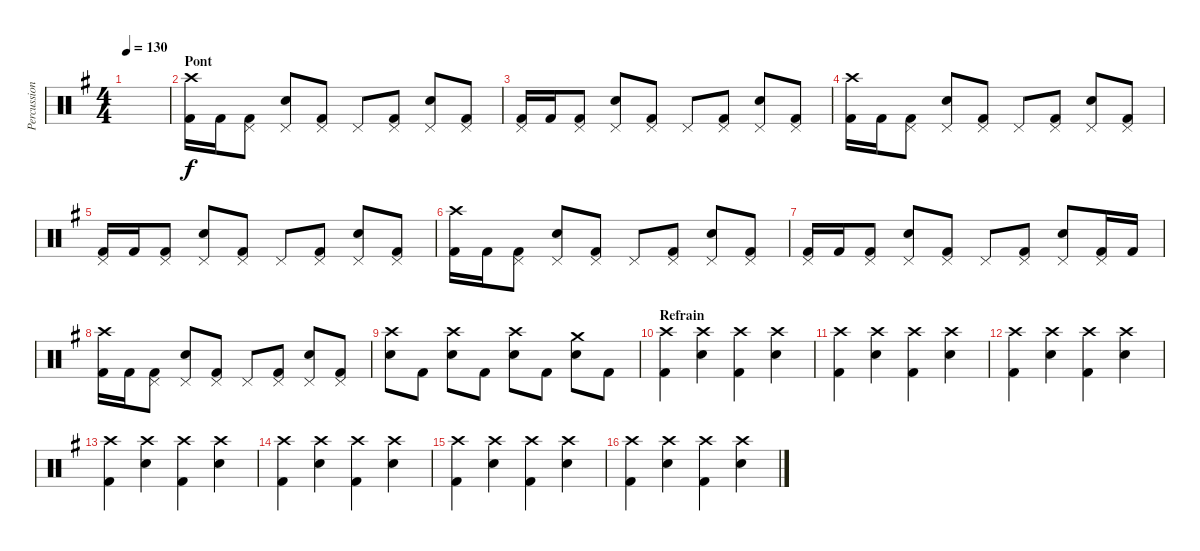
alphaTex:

\track ("Percussions" "Percussion") {instrument percussion}
\staff {score}
\articulation defaults
\ts (4 4)
\tempo 130
\clef neutral
\ks eminor
|
\section ("" "Pont")
("Crash high (hit)" "Kick (hit) 2").16 "Kick (hit) 2".16 ("Pedal Hi-Hat (hit)" "Kick (hit) 2").8 ("Pedal Hi-Hat (hit)" "Electric Snare (hit)").8 ("Pedal Hi-Hat (hit)" "Kick (hit) 2").8 "Pedal Hi-Hat (hit)".8 ("Pedal Hi-Hat (hit)" "Kick (hit) 2").8 ("Pedal Hi-Hat (hit)" "Electric Snare (hit)").8 ("Pedal Hi-Hat (hit)" "Kick (hit) 2").8 |
("Pedal Hi-Hat (hit)" "Kick (hit) 2").16 "Kick (hit) 2".16 ("Pedal Hi-Hat (hit)" "Kick (hit) 2").8 ("Pedal Hi-Hat (hit)" "Electric Snare (hit)").8 ("Pedal Hi-Hat (hit)" "Kick (hit) 2").8 "Pedal Hi-Hat (hit)".8 ("Pedal Hi-Hat (hit)" "Kick (hit) 2").8 ("Pedal Hi-Hat (hit)" "Electric Snare (hit)").8 ("Pedal Hi-Hat (hit)" "Kick (hit) 2").8 |
("Crash high (hit)" "Kick (hit) 2").16 "Kick (hit) 2".16 ("Pedal Hi-Hat (hit)" "Kick (hit) 2").8 ("Pedal Hi-Hat (hit)" "Electric Snare (hit)").8 ("Pedal Hi-Hat (hit)" "Kick (hit) 2").8 "Pedal Hi-Hat (hit)".8 ("Pedal Hi-Hat (hit)" "Kick (hit) 2").8 ("Pedal Hi-Hat (hit)" "Electric Snare (hit)").8 ("Pedal Hi-Hat (hit)" "Kick (hit) 2").8 |
("Pedal Hi-Hat (hit)" "Kick (hit) 2").16 "Kick (hit) 2".16 ("Pedal Hi-Hat (hit)" "Kick (hit) 2").8 ("Pedal Hi-Hat (hit)" "Electric Snare (hit)").8 ("Pedal Hi-Hat (hit)" "Kick (hit) 2").8 "Pedal Hi-Hat (hit)".8 ("Pedal Hi-Hat (hit)" "Kick (hit) 2").8 ("Pedal Hi-Hat (hit)" "Electric Snare (hit)").8 ("Pedal Hi-Hat (hit)" "Kick (hit) 2").8 |
("Crash high (hit)" "Kick (hit) 2").16 "Kick (hit) 2".16 ("Pedal Hi-Hat (hit)" "Kick (hit) 2").8 ("Pedal Hi-Hat (hit)" "Electric Snare (hit)").8 ("Pedal Hi-Hat (hit)" "Kick (hit) 2").8 "Pedal Hi-Hat (hit)".8 ("Pedal Hi-Hat (hit)" "Kick (hit) 2").8 ("Pedal Hi-Hat (hit)" "Electric Snare (hit)").8 ("Pedal Hi-Hat (hit)" "Kick (hit) 2").8 |
("Pedal Hi-Hat (hit)" "Kick (hit) 2").16 "Kick (hit) 2".16 ("Pedal Hi-Hat (hit)" "Kick (hit) 2").8 ("Pedal Hi-Hat (hit)" "Electric Snare (hit)").8 ("Pedal Hi-Hat (hit)" "Kick (hit) 2").8 "Pedal Hi-Hat (hit)".8 ("Pedal Hi-Hat (hit)" "Kick (hit) 2").8 ("Pedal Hi-Hat (hit)" "Electric Snare (hit)").8 ("Pedal Hi-Hat (hit)" "Kick (hit) 2").16 "Kick (hit) 2".16 |
("Crash high (hit)" "Kick (hit) 2").16 "Kick (hit) 2".16 ("Pedal Hi-Hat (hit)" "Kick (hit) 2").8 ("Pedal Hi-Hat (hit)" "Electric Snare (hit)").8 ("Pedal Hi-Hat (hit)" "Kick (hit) 2").8 "Pedal Hi-Hat (hit)".8 ("Pedal Hi-Hat (hit)" "Kick (hit) 2").8 ("Pedal Hi-Hat (hit)" "Electric Snare (hit)").8 ("Pedal Hi-Hat (hit)" "Kick (hit) 2").8 |
("Crash high (hit)" "Electric Snare (hit)").8 "Kick (hit) 2".8 ("Crash high (hit)" "Electric Snare (hit)").8 "Kick (hit) 2".8 ("Crash high (hit)" "Electric Snare (hit)").8 "Kick (hit) 2".8 ("Crash medium (hit)" "Electric Snare (hit)").8 "Kick (hit) 2".8 |
\section ("" "Refrain")
("Crash high (hit)" "Kick (hit) 2").4 ("Crash high (hit)" "Electric Snare (hit)").4 ("Crash high (hit)" "Kick (hit) 2").4 ("Crash high (hit)" "Electric Snare (hit)").4 |
("Crash high (hit)" "Kick (hit) 2").4 ("Crash high (hit)" "Electric Snare (hit)").4 ("Crash high (hit)" "Kick (hit) 2").4 ("Crash high (hit)" "Electric Snare (hit)").4 |
("Crash high (hit)" "Kick (hit) 2").4 ("Crash high (hit)" "Electric Snare (hit)").4 ("Crash high (hit)" "Kick (hit) 2").4 ("Crash high (hit)" "Electric Snare (hit)").4 |
("Crash high (hit)" "Kick (hit) 2").4 ("Crash high (hit)" "Electric Snare (hit)").4 ("Crash high (hit)" "Kick (hit) 2").4 ("Crash high (hit)" "Electric Snare (hit)").4 |
("Crash high (hit)" "Kick (hit) 2").4 ("Crash high (hit)" "Electric Snare (hit)").4 ("Crash high (hit)" "Kick (hit) 2").4 ("Crash high (hit)" "Electric Snare (hit)").4 |
("Crash high (hit)" "Kick (hit) 2").4 ("Crash high (hit)" "Electric Snare (hit)").4 ("Crash high (hit)" "Kick (hit) 2").4 ("Crash high (hit)" "Electric Snare (hit)").4 |
("Crash high (hit)" "Kick (hit) 2").4 ("Crash high (hit)" "Electric Snare (hit)").4 ("Crash high (hit)" "Kick (hit) 2").4 ("Crash high (hit)" "Electric Snare (hit)").4
